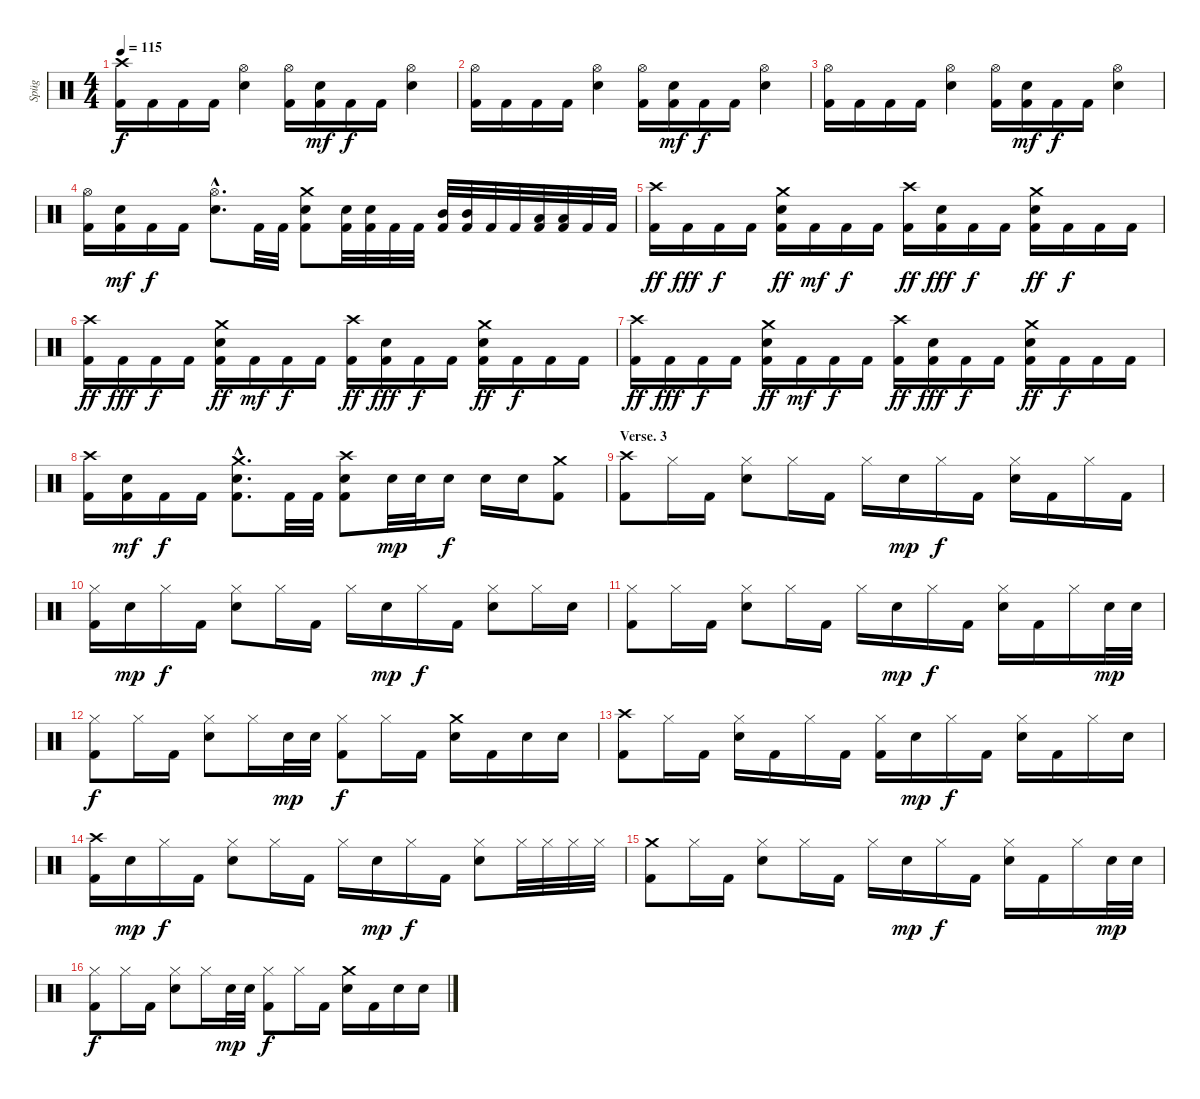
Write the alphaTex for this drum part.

\track ("Spüg" "Spüg") {instrument percussion}
\staff {score}
\articulation defaults
\ts (4 4)
\tempo 115
\clef neutral
\ks c
("Crash high (hit)" "Kick (hit) 2").16{dy f} "Kick (hit) 2".16 "Kick (hit) 2".16 "Kick (hit) 2".16 ("Hi-Hat (open)" "Electric Snare (hit)").4 ("Hi-Hat (open)" "Kick (hit) 2").16 ("Electric Snare (hit)" "Kick (hit) 2").16{dy mf} "Kick (hit) 2".16{dy f} "Kick (hit) 2".16 ("Hi-Hat (open)" "Electric Snare (hit)").4 |
("Hi-Hat (open)" "Kick (hit) 2").16 "Kick (hit) 2".16 "Kick (hit) 2".16 "Kick (hit) 2".16 ("Hi-Hat (open)" "Electric Snare (hit)").4 ("Hi-Hat (open)" "Kick (hit) 2").16 ("Electric Snare (hit)" "Kick (hit) 2").16{dy mf} "Kick (hit) 2".16{dy f} "Kick (hit) 2".16 ("Hi-Hat (open)" "Electric Snare (hit)").4 |
("Hi-Hat (open)" "Kick (hit) 2").16 "Kick (hit) 2".16 "Kick (hit) 2".16 "Kick (hit) 2".16 ("Hi-Hat (open)" "Electric Snare (hit)").4 ("Hi-Hat (open)" "Kick (hit) 2").16 ("Electric Snare (hit)" "Kick (hit) 2").16{dy mf} "Kick (hit) 2".16{dy f} "Kick (hit) 2".16 ("Hi-Hat (open)" "Electric Snare (hit)").4 |
("Hi-Hat (open)" "Kick (hit) 2").16 ("Electric Snare (hit)" "Kick (hit) 2").16{dy mf} "Kick (hit) 2".16{dy f} "Kick (hit) 2".16 ("Hi-Hat (open)"{hac} "Electric Snare (hit)"{hac}).8{d} "Kick (hit) 2".32 "Kick (hit) 2".32 ("Crash medium (hit)" "Electric Snare (hit)" "Kick (hit) 2").8 ("Electric Snare (hit)" "Kick (hit) 2").32 ("Electric Snare (hit)" "Kick (hit) 2").32 "Kick (hit) 2".32 "Kick (hit) 2".32 ("Mid Tom (hit)" "Kick (hit) 2").32 ("Mid Tom (hit)" "Kick (hit) 2").32 "Kick (hit) 2".32 "Kick (hit) 2".32 ("Low Tom (hit)" "Kick (hit) 2").32 ("Low Tom (hit)" "Kick (hit) 2").32 "Kick (hit) 2".32 "Kick (hit) 2".32 |
("Crash high (hit)" "Kick (hit) 2").16{dy ff} "Kick (hit) 2".16{dy fff} "Kick (hit) 2".16{dy f} "Kick (hit) 2".16 ("Crash medium (hit)" "Electric Snare (hit)" "Kick (hit) 2").16{dy ff} "Kick (hit) 2".16{dy mf} "Kick (hit) 2".16{dy f} "Kick (hit) 2".16 ("Crash high (hit)" "Kick (hit) 2").16{dy ff} ("Electric Snare (hit)" "Kick (hit) 2").16{dy fff} "Kick (hit) 2".16{dy f} "Kick (hit) 2".16 ("Crash medium (hit)" "Electric Snare (hit)" "Kick (hit) 2").16{dy ff} "Kick (hit) 2".16{dy f} "Kick (hit) 2".16 "Kick (hit) 2".16 |
("Crash high (hit)" "Kick (hit) 2").16{dy ff} "Kick (hit) 2".16{dy fff} "Kick (hit) 2".16{dy f} "Kick (hit) 2".16 ("Crash medium (hit)" "Electric Snare (hit)" "Kick (hit) 2").16{dy ff} "Kick (hit) 2".16{dy mf} "Kick (hit) 2".16{dy f} "Kick (hit) 2".16 ("Crash high (hit)" "Kick (hit) 2").16{dy ff} ("Electric Snare (hit)" "Kick (hit) 2").16{dy fff} "Kick (hit) 2".16{dy f} "Kick (hit) 2".16 ("Crash medium (hit)" "Electric Snare (hit)" "Kick (hit) 2").16{dy ff} "Kick (hit) 2".16{dy f} "Kick (hit) 2".16 "Kick (hit) 2".16 |
("Crash high (hit)" "Kick (hit) 2").16{dy ff} "Kick (hit) 2".16{dy fff} "Kick (hit) 2".16{dy f} "Kick (hit) 2".16 ("Crash medium (hit)" "Electric Snare (hit)" "Kick (hit) 2").16{dy ff} "Kick (hit) 2".16{dy mf} "Kick (hit) 2".16{dy f} "Kick (hit) 2".16 ("Crash high (hit)" "Kick (hit) 2").16{dy ff} ("Electric Snare (hit)" "Kick (hit) 2").16{dy fff} "Kick (hit) 2".16{dy f} "Kick (hit) 2".16 ("Crash medium (hit)" "Electric Snare (hit)" "Kick (hit) 2").16{dy ff} "Kick (hit) 2".16{dy f} "Kick (hit) 2".16 "Kick (hit) 2".16 |
("Crash high (hit)" "Kick (hit) 2").16 ("Electric Snare (hit)" "Kick (hit) 2").16{dy mf} "Kick (hit) 2".16{dy f} "Kick (hit) 2".16 ("Crash medium (hit)"{hac} "Electric Snare (hit)"{hac} "Kick (hit) 2"{hac}).8{d} "Kick (hit) 2".32 "Kick (hit) 2".32 ("Crash high (hit)" "Electric Snare (hit)" "Kick (hit) 2").8 "Electric Snare (hit)".32{dy mp} "Electric Snare (hit)".32 "Electric Snare (hit)".16{dy f} "Electric Snare (hit)".16 "Electric Snare (hit)".16 ("Crash medium (hit)" "Kick (hit) 2").8 |
\section ("" "Verse. 3")
("Crash high (hit)" "Kick (hit) 2").8 "Hi-Hat (closed)".16 "Kick (hit) 2".16 ("Hi-Hat (closed)" "Electric Snare (hit)").8 "Hi-Hat (closed)".16 "Kick (hit) 2".16 "Hi-Hat (closed)".16 "Electric Snare (hit)".16{dy mp} "Hi-Hat (closed)".16{dy f} "Kick (hit) 2".16 ("Hi-Hat (closed)" "Electric Snare (hit)").16 "Kick (hit) 2".16 "Hi-Hat (closed)".16 "Kick (hit) 2".16 |
("Hi-Hat (closed)" "Kick (hit) 2").16 "Electric Snare (hit)".16{dy mp} "Hi-Hat (closed)".16{dy f} "Kick (hit) 2".16 ("Hi-Hat (closed)" "Electric Snare (hit)").8 "Hi-Hat (closed)".16 "Kick (hit) 2".16 "Hi-Hat (closed)".16 "Electric Snare (hit)".16{dy mp} "Hi-Hat (closed)".16{dy f} "Kick (hit) 2".16 ("Hi-Hat (closed)" "Electric Snare (hit)").8 "Hi-Hat (closed)".16 "Electric Snare (hit)".16 |
("Hi-Hat (closed)" "Kick (hit) 2").8 "Hi-Hat (closed)".16 "Kick (hit) 2".16 ("Hi-Hat (closed)" "Electric Snare (hit)").8 "Hi-Hat (closed)".16 "Kick (hit) 2".16 "Hi-Hat (closed)".16 "Electric Snare (hit)".16{dy mp} "Hi-Hat (closed)".16{dy f} "Kick (hit) 2".16 ("Hi-Hat (closed)" "Electric Snare (hit)").16 "Kick (hit) 2".16 "Hi-Hat (closed)".16 "Electric Snare (hit)".32{dy mp} "Electric Snare (hit)".32 |
("Hi-Hat (closed)" "Kick (hit) 2").8{dy f} "Hi-Hat (closed)".16 "Kick (hit) 2".16 ("Hi-Hat (closed)" "Electric Snare (hit)").8 "Hi-Hat (closed)".16 "Electric Snare (hit)".32{dy mp} "Electric Snare (hit)".32 ("Hi-Hat (closed)" "Kick (hit) 2").8{dy f} "Hi-Hat (closed)".16 "Kick (hit) 2".16 ("Crash medium (hit)" "Electric Snare (hit)").16 "Kick (hit) 2".16 "Electric Snare (hit)".16 "Electric Snare (hit)".16 |
("Crash high (hit)" "Kick (hit) 2").8 "Hi-Hat (closed)".16 "Kick (hit) 2".16 ("Hi-Hat (closed)" "Electric Snare (hit)").16 "Kick (hit) 2".16 "Hi-Hat (closed)".16 "Kick (hit) 2".16 ("Hi-Hat (closed)" "Kick (hit) 2").16 "Electric Snare (hit)".16{dy mp} "Hi-Hat (closed)".16{dy f} "Kick (hit) 2".16 ("Hi-Hat (closed)" "Electric Snare (hit)").16 "Kick (hit) 2".16 "Hi-Hat (closed)".16 "Electric Snare (hit)".16 |
("Crash high (hit)" "Kick (hit) 2").16 "Electric Snare (hit)".16{dy mp} "Hi-Hat (closed)".16{dy f} "Kick (hit) 2".16 ("Hi-Hat (closed)" "Electric Snare (hit)").8 "Hi-Hat (closed)".16 "Kick (hit) 2".16 "Hi-Hat (closed)".16 "Electric Snare (hit)".16{dy mp} "Hi-Hat (closed)".16{dy f} "Kick (hit) 2".16 ("Hi-Hat (closed)" "Electric Snare (hit)").8 "Hi-Hat (closed)".32 "Hi-Hat (closed)".32 "Hi-Hat (closed)".32 "Hi-Hat (closed)".32 |
("Crash medium (hit)" "Kick (hit) 2").8 "Hi-Hat (closed)".16 "Kick (hit) 2".16 ("Hi-Hat (closed)" "Electric Snare (hit)").8 "Hi-Hat (closed)".16 "Kick (hit) 2".16 "Hi-Hat (closed)".16 "Electric Snare (hit)".16{dy mp} "Hi-Hat (closed)".16{dy f} "Kick (hit) 2".16 ("Hi-Hat (closed)" "Electric Snare (hit)").16 "Kick (hit) 2".16 "Hi-Hat (closed)".16 "Electric Snare (hit)".32{dy mp} "Electric Snare (hit)".32 |
("Hi-Hat (closed)" "Kick (hit) 2").8{dy f} "Hi-Hat (closed)".16 "Kick (hit) 2".16 ("Hi-Hat (closed)" "Electric Snare (hit)").8 "Hi-Hat (closed)".16 "Electric Snare (hit)".32{dy mp} "Electric Snare (hit)".32 ("Hi-Hat (closed)" "Kick (hit) 2").8{dy f} "Hi-Hat (closed)".16 "Kick (hit) 2".16 ("Crash medium (hit)" "Electric Snare (hit)").16 "Kick (hit) 2".16 "Electric Snare (hit)".16 "Electric Snare (hit)".16
